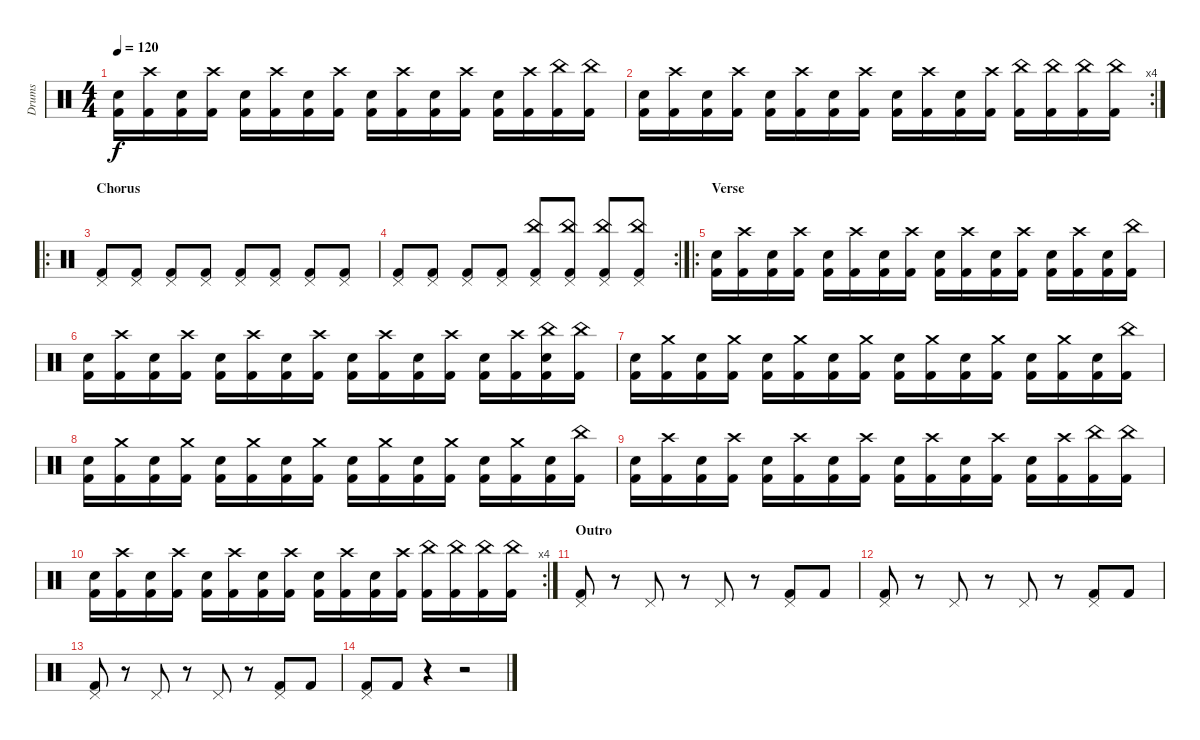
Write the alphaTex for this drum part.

\track ("Drums" "Drums") {instrument percussion}
\staff {score}
\articulation defaults
\ts (4 4)
\tempo 120
\clef neutral
\ks c
("Kick (hit) 2" "Electric Snare (hit)").16{dy f} ("Kick (hit) 2" "Crash high (hit)").16 ("Kick (hit) 2" "Electric Snare (hit)").16 ("Kick (hit) 2" "Crash high (hit)").16 ("Kick (hit) 2" "Electric Snare (hit)").16 ("Kick (hit) 2" "Crash high (hit)").16 ("Kick (hit) 2" "Electric Snare (hit)").16 ("Kick (hit) 2" "Crash high (hit)").16 ("Kick (hit) 2" "Electric Snare (hit)").16 ("Kick (hit) 2" "Crash high (hit)").16 ("Kick (hit) 2" "Electric Snare (hit)").16 ("Kick (hit) 2" "Crash high (hit)").16 ("Kick (hit) 2" "Electric Snare (hit)").16 ("Kick (hit) 2" "Crash high (hit)").16 ("Kick (hit) 2" "China (hit)").16 ("Kick (hit) 2" "China (hit)").16 |
\rc 4
("Kick (hit) 2" "Electric Snare (hit)").16 ("Kick (hit) 2" "Crash high (hit)").16 ("Kick (hit) 2" "Electric Snare (hit)").16 ("Kick (hit) 2" "Crash high (hit)").16 ("Kick (hit) 2" "Electric Snare (hit)").16 ("Kick (hit) 2" "Crash high (hit)").16 ("Kick (hit) 2" "Electric Snare (hit)").16 ("Kick (hit) 2" "Crash high (hit)").16 ("Kick (hit) 2" "Electric Snare (hit)").16 ("Kick (hit) 2" "Crash high (hit)").16 ("Kick (hit) 2" "Electric Snare (hit)").16 ("Kick (hit) 2" "Crash high (hit)").16 ("Kick (hit) 2" "China (hit)").16 ("Kick (hit) 2" "China (hit)").16 ("Kick (hit) 2" "China (hit)").16 ("Kick (hit) 2" "China (hit)").16 |
\ro
\section ("" "Chorus")
("Kick (hit) 2" "Pedal Hi-Hat (hit)").8 ("Kick (hit) 2" "Pedal Hi-Hat (hit)").8 ("Kick (hit) 2" "Pedal Hi-Hat (hit)").8 ("Kick (hit) 2" "Pedal Hi-Hat (hit)").8 ("Kick (hit) 2" "Pedal Hi-Hat (hit)").8 ("Kick (hit) 2" "Pedal Hi-Hat (hit)").8 ("Kick (hit) 2" "Pedal Hi-Hat (hit)").8 ("Kick (hit) 2" "Pedal Hi-Hat (hit)").8 |
\rc 2
("Kick (hit) 2" "Pedal Hi-Hat (hit)").8 ("Kick (hit) 2" "Pedal Hi-Hat (hit)").8 ("Kick (hit) 2" "Pedal Hi-Hat (hit)").8 ("Kick (hit) 2" "Pedal Hi-Hat (hit)").8 ("Kick (hit) 2" "Pedal Hi-Hat (hit)" "China (hit)").8 ("Kick (hit) 2" "Pedal Hi-Hat (hit)" "China (hit)").8 ("Kick (hit) 2" "Pedal Hi-Hat (hit)" "China (hit)").8 ("Kick (hit) 2" "Pedal Hi-Hat (hit)" "China (hit)").8 |
\ro
\section ("" "Verse")
("Kick (hit) 2" "Electric Snare (hit)").16 ("Kick (hit) 2" "Crash high (hit)").16 ("Kick (hit) 2" "Electric Snare (hit)").16 ("Kick (hit) 2" "Crash high (hit)").16 ("Kick (hit) 2" "Electric Snare (hit)").16 ("Kick (hit) 2" "Crash high (hit)").16 ("Kick (hit) 2" "Electric Snare (hit)").16 ("Kick (hit) 2" "Crash high (hit)").16 ("Kick (hit) 2" "Electric Snare (hit)").16 ("Kick (hit) 2" "Crash high (hit)").16 ("Kick (hit) 2" "Electric Snare (hit)").16 ("Kick (hit) 2" "Crash high (hit)").16 ("Kick (hit) 2" "Electric Snare (hit)").16 ("Kick (hit) 2" "Crash high (hit)").16 ("Kick (hit) 2" "Electric Snare (hit)").16 ("Kick (hit) 2" "China (hit)").16 |
("Kick (hit) 2" "Electric Snare (hit)").16 ("Kick (hit) 2" "Crash high (hit)").16 ("Kick (hit) 2" "Electric Snare (hit)").16 ("Kick (hit) 2" "Crash high (hit)").16 ("Kick (hit) 2" "Electric Snare (hit)").16 ("Kick (hit) 2" "Crash high (hit)").16 ("Kick (hit) 2" "Electric Snare (hit)").16 ("Kick (hit) 2" "Crash high (hit)").16 ("Kick (hit) 2" "Electric Snare (hit)").16 ("Kick (hit) 2" "Crash high (hit)").16 ("Kick (hit) 2" "Electric Snare (hit)").16 ("Kick (hit) 2" "Crash high (hit)").16 ("Kick (hit) 2" "Electric Snare (hit)").16 ("Kick (hit) 2" "Crash high (hit)").16 ("Kick (hit) 2" "China (hit)" "Electric Snare (hit)").16 ("Kick (hit) 2" "China (hit)").16 |
("Kick (hit) 2" "Electric Snare (hit)").16 ("Kick (hit) 2" "Crash medium (hit)").16 ("Kick (hit) 2" "Electric Snare (hit)").16 ("Kick (hit) 2" "Crash medium (hit)").16 ("Kick (hit) 2" "Electric Snare (hit)").16 ("Kick (hit) 2" "Crash medium (hit)").16 ("Kick (hit) 2" "Electric Snare (hit)").16 ("Kick (hit) 2" "Crash medium (hit)").16 ("Kick (hit) 2" "Electric Snare (hit)").16 ("Kick (hit) 2" "Crash medium (hit)").16 ("Kick (hit) 2" "Electric Snare (hit)").16 ("Kick (hit) 2" "Crash medium (hit)").16 ("Kick (hit) 2" "Electric Snare (hit)").16 ("Kick (hit) 2" "Crash medium (hit)").16 ("Kick (hit) 2" "Electric Snare (hit)").16 ("Kick (hit) 2" "China (hit)").16 |
("Kick (hit) 2" "Electric Snare (hit)").16 ("Kick (hit) 2" "Crash medium (hit)").16 ("Kick (hit) 2" "Electric Snare (hit)").16 ("Kick (hit) 2" "Crash medium (hit)").16 ("Kick (hit) 2" "Electric Snare (hit)").16 ("Kick (hit) 2" "Crash medium (hit)").16 ("Kick (hit) 2" "Electric Snare (hit)").16 ("Kick (hit) 2" "Crash medium (hit)").16 ("Kick (hit) 2" "Electric Snare (hit)").16 ("Kick (hit) 2" "Crash medium (hit)").16 ("Kick (hit) 2" "Electric Snare (hit)").16 ("Kick (hit) 2" "Crash medium (hit)").16 ("Kick (hit) 2" "Electric Snare (hit)").16 ("Kick (hit) 2" "Crash medium (hit)").16 ("Kick (hit) 2" "Electric Snare (hit)").16 ("Kick (hit) 2" "China (hit)").16 |
("Kick (hit) 2" "Electric Snare (hit)").16 ("Kick (hit) 2" "Crash high (hit)").16 ("Kick (hit) 2" "Electric Snare (hit)").16 ("Kick (hit) 2" "Crash high (hit)").16 ("Kick (hit) 2" "Electric Snare (hit)").16 ("Kick (hit) 2" "Crash high (hit)").16 ("Kick (hit) 2" "Electric Snare (hit)").16 ("Kick (hit) 2" "Crash high (hit)").16 ("Kick (hit) 2" "Electric Snare (hit)").16 ("Kick (hit) 2" "Crash high (hit)").16 ("Kick (hit) 2" "Electric Snare (hit)").16 ("Kick (hit) 2" "Crash high (hit)").16 ("Kick (hit) 2" "Electric Snare (hit)").16 ("Kick (hit) 2" "Crash high (hit)").16 ("Kick (hit) 2" "China (hit)").16 ("Kick (hit) 2" "China (hit)").16 |
\rc 4
("Kick (hit) 2" "Electric Snare (hit)").16 ("Kick (hit) 2" "Crash high (hit)").16 ("Kick (hit) 2" "Electric Snare (hit)").16 ("Kick (hit) 2" "Crash high (hit)").16 ("Kick (hit) 2" "Electric Snare (hit)").16 ("Kick (hit) 2" "Crash high (hit)").16 ("Kick (hit) 2" "Electric Snare (hit)").16 ("Kick (hit) 2" "Crash high (hit)").16 ("Kick (hit) 2" "Electric Snare (hit)").16 ("Kick (hit) 2" "Crash high (hit)").16 ("Kick (hit) 2" "Electric Snare (hit)").16 ("Kick (hit) 2" "Crash high (hit)").16 ("Kick (hit) 2" "China (hit)").16 ("Kick (hit) 2" "China (hit)").16 ("Kick (hit) 2" "China (hit)").16 ("Kick (hit) 2" "China (hit)").16 |
\section ("" "Outro")
("Pedal Hi-Hat (hit)" "Kick (hit) 2").8 r.8 "Pedal Hi-Hat (hit)".8 r.8 "Pedal Hi-Hat (hit)".8 r.8 ("Pedal Hi-Hat (hit)" "Kick (hit) 2").8 "Kick (hit) 2".8 |
("Pedal Hi-Hat (hit)" "Kick (hit) 2").8 r.8 "Pedal Hi-Hat (hit)".8 r.8 "Pedal Hi-Hat (hit)".8 r.8 ("Pedal Hi-Hat (hit)" "Kick (hit) 2").8 "Kick (hit) 2".8 |
("Pedal Hi-Hat (hit)" "Kick (hit) 2").8 r.8 "Pedal Hi-Hat (hit)".8 r.8 "Pedal Hi-Hat (hit)".8 r.8 ("Pedal Hi-Hat (hit)" "Kick (hit) 2").8 "Kick (hit) 2".8 |
("Pedal Hi-Hat (hit)" "Kick (hit) 2").8 "Kick (hit) 2".8 r.4 r.2
